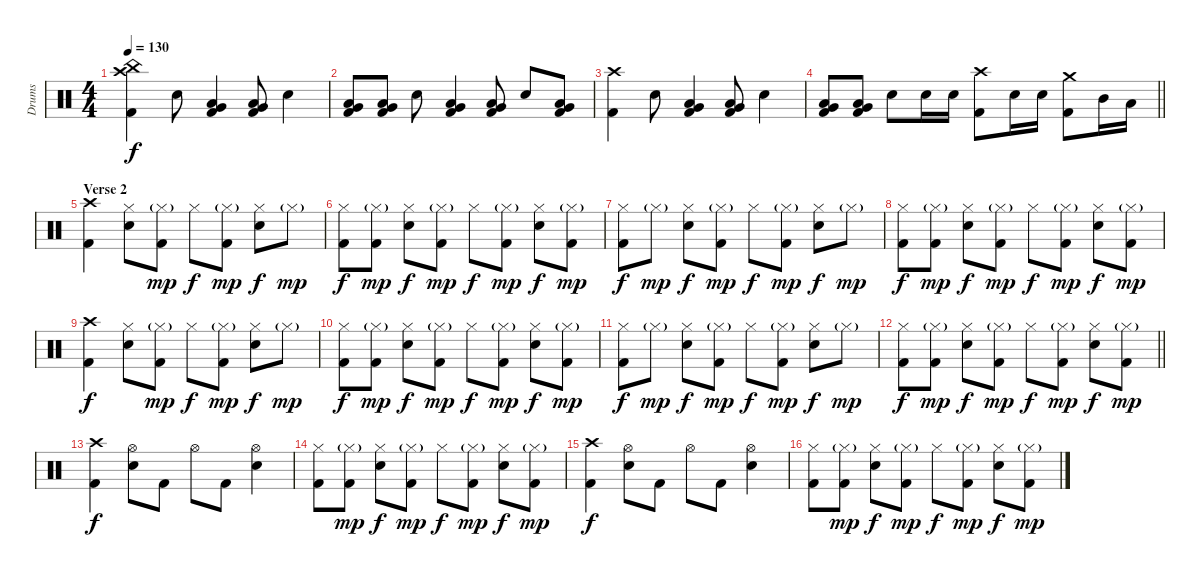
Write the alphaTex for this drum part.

\track ("Drums" "Drums") {instrument percussion}
\staff {score}
\articulation defaults
\ts (4 4)
\tempo 130
\clef neutral
\ks c
("China (hit)" "Crash high (hit)" "Kick (hit) 2").4{dy f} "Snare (hit) 2".8 ("Low Tom (hit)" "Very Low Tom (hit)" "Kick (hit) 2").4 ("Low Tom (hit)" "Very Low Tom (hit)" "Kick (hit) 2").8 "Snare (hit) 2".4 |
("Low Floor Tom (hit)" "Very Low Tom (hit)" "Kick (hit) 2").8 ("Low Floor Tom (hit)" "Very Low Tom (hit)" "Kick (hit) 2").8 "Snare (hit) 2".8 ("Low Tom (hit)" "Very Low Tom (hit)" "Kick (hit) 2").4 ("Low Tom (hit)" "Very Low Tom (hit)" "Kick (hit) 2").8 "Snare (hit) 2".8 ("Low Tom (hit)" "Very Low Tom (hit)" "Kick (hit) 2").8 |
("Crash high (hit)" "Kick (hit) 2").4 "Snare (hit) 2".8 ("Low Tom (hit)" "Very Low Tom (hit)" "Kick (hit) 2").4 ("Low Tom (hit)" "Very Low Tom (hit)" "Kick (hit) 2").8 "Snare (hit) 2".4 |
\barLineRight lightlight
("Low Floor Tom (hit)" "Very Low Tom (hit)" "Kick (hit) 2").8 ("Low Floor Tom (hit)" "Very Low Tom (hit)" "Kick (hit) 2").8 "Snare (hit) 2".8 "Snare (hit) 2".16 "Snare (hit) 2".16 ("Crash high (hit)" "Kick (hit) 2").8 "Snare (hit) 2".16 "Snare (hit) 2".16 ("Crash medium (hit)" "Kick (hit) 2").8 "Mid Tom (hit)".16 "Low Tom (hit)".16 |
\section ("" "Verse 2")
("Crash high (hit)" "Kick (hit) 2").4 ("Hi-Hat (closed)" "Snare (hit) 2").8 ("Hi-Hat (closed)"{g} "Kick (hit) 2").8{dy mp} "Hi-Hat (closed)".8{dy f} ("Hi-Hat (closed)"{g} "Kick (hit) 2").8{dy mp} ("Hi-Hat (closed)" "Snare (hit) 2").8{dy f} "Hi-Hat (closed)"{g}.8{dy mp} |
("Hi-Hat (closed)" "Kick (hit) 2").8{dy f} ("Hi-Hat (closed)"{g} "Kick (hit) 2").8{dy mp} ("Hi-Hat (closed)" "Snare (hit) 2").8{dy f} ("Hi-Hat (closed)"{g} "Kick (hit) 2").8{dy mp} "Hi-Hat (closed)".8{dy f} ("Hi-Hat (closed)"{g} "Kick (hit) 2").8{dy mp} ("Hi-Hat (closed)" "Snare (hit) 2").8{dy f} ("Hi-Hat (closed)"{g} "Kick (hit) 2").8{dy mp} |
("Hi-Hat (closed)" "Kick (hit) 2").8{dy f} "Hi-Hat (closed)"{g}.8{dy mp} ("Hi-Hat (closed)" "Snare (hit) 2").8{dy f} ("Hi-Hat (closed)"{g} "Kick (hit) 2").8{dy mp} "Hi-Hat (closed)".8{dy f} ("Hi-Hat (closed)"{g} "Kick (hit) 2").8{dy mp} ("Hi-Hat (closed)" "Snare (hit) 2").8{dy f} "Hi-Hat (closed)"{g}.8{dy mp} |
("Hi-Hat (closed)" "Kick (hit) 2").8{dy f} ("Hi-Hat (closed)"{g} "Kick (hit) 2").8{dy mp} ("Hi-Hat (closed)" "Snare (hit) 2").8{dy f} ("Hi-Hat (closed)"{g} "Kick (hit) 2").8{dy mp} "Hi-Hat (closed)".8{dy f} ("Hi-Hat (closed)"{g} "Kick (hit) 2").8{dy mp} ("Hi-Hat (closed)" "Snare (hit) 2").8{dy f} ("Hi-Hat (closed)"{g} "Kick (hit) 2").8{dy mp} |
("Crash high (hit)" "Kick (hit) 2").4{dy f} ("Hi-Hat (closed)" "Snare (hit) 2").8 ("Hi-Hat (closed)"{g} "Kick (hit) 2").8{dy mp} "Hi-Hat (closed)".8{dy f} ("Hi-Hat (closed)"{g} "Kick (hit) 2").8{dy mp} ("Hi-Hat (closed)" "Snare (hit) 2").8{dy f} "Hi-Hat (closed)"{g}.8{dy mp} |
("Hi-Hat (closed)" "Kick (hit) 2").8{dy f} ("Hi-Hat (closed)"{g} "Kick (hit) 2").8{dy mp} ("Hi-Hat (closed)" "Snare (hit) 2").8{dy f} ("Hi-Hat (closed)"{g} "Kick (hit) 2").8{dy mp} "Hi-Hat (closed)".8{dy f} ("Hi-Hat (closed)"{g} "Kick (hit) 2").8{dy mp} ("Hi-Hat (closed)" "Snare (hit) 2").8{dy f} ("Hi-Hat (closed)"{g} "Kick (hit) 2").8{dy mp} |
("Hi-Hat (closed)" "Kick (hit) 2").8{dy f} "Hi-Hat (closed)"{g}.8{dy mp} ("Hi-Hat (closed)" "Snare (hit) 2").8{dy f} ("Hi-Hat (closed)"{g} "Kick (hit) 2").8{dy mp} "Hi-Hat (closed)".8{dy f} ("Hi-Hat (closed)"{g} "Kick (hit) 2").8{dy mp} ("Hi-Hat (closed)" "Snare (hit) 2").8{dy f} "Hi-Hat (closed)"{g}.8{dy mp} |
\barLineRight lightlight
("Hi-Hat (closed)" "Kick (hit) 2").8{dy f} ("Hi-Hat (closed)"{g} "Kick (hit) 2").8{dy mp} ("Hi-Hat (closed)" "Snare (hit) 2").8{dy f} ("Hi-Hat (closed)"{g} "Kick (hit) 2").8{dy mp} "Hi-Hat (closed)".8{dy f} ("Hi-Hat (closed)"{g} "Kick (hit) 2").8{dy mp} ("Hi-Hat (closed)" "Snare (hit) 2").8{dy f} ("Hi-Hat (closed)"{g} "Kick (hit) 2").8{dy mp} |
\section ("" "")
("Crash high (hit)" "Kick (hit) 2").4{dy f} ("Hi-Hat (open)" "Snare (hit) 2").8 "Kick (hit) 2".8 "Hi-Hat (open)".8 "Kick (hit) 2".8 ("Hi-Hat (open)" "Snare (hit) 2").4 |
("Hi-Hat (closed)" "Kick (hit) 2").8 ("Hi-Hat (closed)"{g} "Kick (hit) 2").8{dy mp} ("Hi-Hat (closed)" "Snare (hit) 2").8{dy f} ("Hi-Hat (closed)"{g} "Kick (hit) 2").8{dy mp} "Hi-Hat (closed)".8{dy f} ("Hi-Hat (closed)"{g} "Kick (hit) 2").8{dy mp} ("Hi-Hat (closed)" "Snare (hit) 2").8{dy f} ("Hi-Hat (closed)"{g} "Kick (hit) 2").8{dy mp} |
("Crash high (hit)" "Kick (hit) 2").4{dy f} ("Hi-Hat (open)" "Snare (hit) 2").8 "Kick (hit) 2".8 "Hi-Hat (open)".8 "Kick (hit) 2".8 ("Hi-Hat (open)" "Snare (hit) 2").4 |
("Hi-Hat (closed)" "Kick (hit) 2").8 ("Hi-Hat (closed)"{g} "Kick (hit) 2").8{dy mp} ("Hi-Hat (closed)" "Snare (hit) 2").8{dy f} ("Hi-Hat (closed)"{g} "Kick (hit) 2").8{dy mp} "Hi-Hat (closed)".8{dy f} ("Hi-Hat (closed)"{g} "Kick (hit) 2").8{dy mp} ("Hi-Hat (closed)" "Snare (hit) 2").8{dy f} ("Hi-Hat (closed)"{g} "Kick (hit) 2").8{dy mp}
